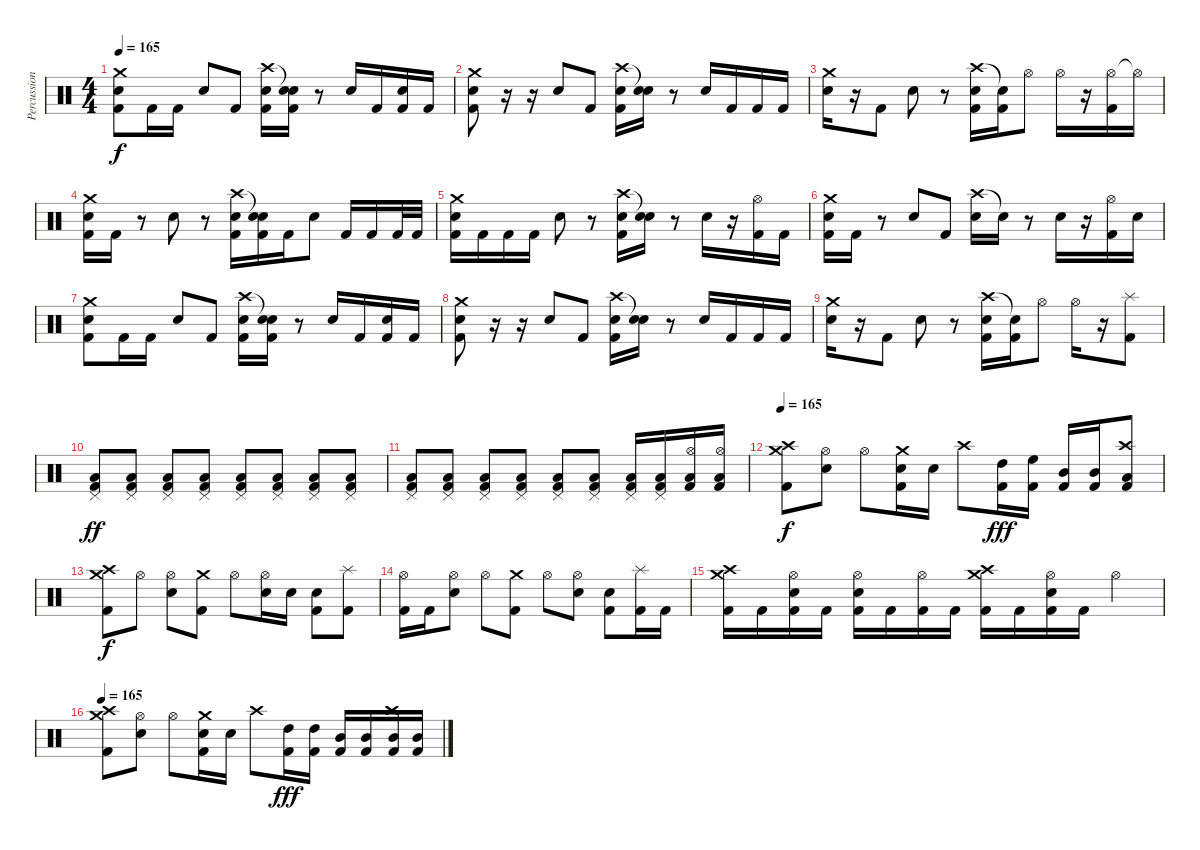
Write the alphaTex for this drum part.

\track ("Percussion" "Percussion") {instrument percussion}
\staff {score}
\articulation defaults
\ts (4 4)
\tempo 165
\clef neutral
\ks c
("Crash medium (hit)" "Electric Snare (hit)" "Kick (hit) 2").8{dy f} "Kick (hit) 2".16 "Kick (hit) 2".16 "Electric Snare (hit)".8 "Kick (hit) 2".8 ("Crash high (hit)" "Electric Snare (hit)" "Kick (hit) 2").16 ("Snare (hit)"{t} "Electric Snare (hit)" "Kick (hit) 2").16 r.8 "Electric Snare (hit)".16 "Kick (hit) 2".16 ("Electric Snare (hit)" "Kick (hit) 2").16 "Kick (hit) 2".16 |
("Crash medium (hit)" "Electric Snare (hit)" "Kick (hit) 2").8 r.16 r.16 "Electric Snare (hit)".8 "Kick (hit) 2".8 ("Crash high (hit)" "Electric Snare (hit)" "Kick (hit) 2").16 ("Snare (hit)"{t} "Electric Snare (hit)").16 r.8 "Electric Snare (hit)".16 "Kick (hit) 2".16 "Kick (hit) 2".16 "Kick (hit) 2".16 |
("Crash medium (hit)" "Electric Snare (hit)").16 r.16 "Kick (hit) 2".8 "Electric Snare (hit)".8 r.8 ("Crash high (hit)" "Electric Snare (hit)" "Kick (hit) 2").16 ("Snare (hit)"{t} "Kick (hit) 2").16 "Hi-Hat (open)".8 "Hi-Hat (open)".16 r.16 ("Hi-Hat (open)" "Kick (hit) 2").16 "Hi-Hat (open)"{t}.16 |
("Crash medium (hit)" "Electric Snare (hit)" "Kick (hit) 2").16 "Kick (hit) 2".16 r.8 "Electric Snare (hit)".8 r.8 ("Crash high (hit)" "Electric Snare (hit)" "Kick (hit) 2").16 ("Snare (hit)"{t} "Electric Snare (hit)" "Kick (hit) 2").16 "Kick (hit) 2".16 "Electric Snare (hit)".8 "Kick (hit) 2".16 "Kick (hit) 2".16 "Kick (hit) 2".32 "Kick (hit) 2".32 |
("Crash medium (hit)" "Electric Snare (hit)" "Kick (hit) 2").16 "Kick (hit) 2".16 "Kick (hit) 2".16 "Kick (hit) 2".16 "Electric Snare (hit)".8 r.8 ("Crash high (hit)" "Electric Snare (hit)" "Kick (hit) 2").16 ("Snare (hit)"{t} "Electric Snare (hit)").16 r.8 "Electric Snare (hit)".16 r.16 ("Hi-Hat (open)" "Kick (hit) 2").16 "Kick (hit) 2".16 |
("Crash medium (hit)" "Electric Snare (hit)" "Kick (hit) 2").16 "Kick (hit) 2".16 r.8 "Electric Snare (hit)".8 "Kick (hit) 2".8 ("Crash high (hit)" "Electric Snare (hit)").16 "Snare (hit)"{t}.16 r.8 "Electric Snare (hit)".16 r.16 ("Hi-Hat (open)" "Kick (hit) 2").16 "Electric Snare (hit)".16 |
("Crash medium (hit)" "Electric Snare (hit)" "Kick (hit) 2").8 "Kick (hit) 2".16 "Kick (hit) 2".16 "Electric Snare (hit)".8 "Kick (hit) 2".8 ("Crash high (hit)" "Electric Snare (hit)" "Kick (hit) 2").16 ("Snare (hit)"{t} "Electric Snare (hit)" "Kick (hit) 2").16 r.8 "Electric Snare (hit)".16 "Kick (hit) 2".16 ("Electric Snare (hit)" "Kick (hit) 2").16 "Kick (hit) 2".16 |
("Crash medium (hit)" "Electric Snare (hit)" "Kick (hit) 2").8 r.16 r.16 "Electric Snare (hit)".8 "Kick (hit) 2".8 ("Crash high (hit)" "Electric Snare (hit)" "Kick (hit) 2").16 ("Snare (hit)"{t} "Electric Snare (hit)").16 r.8 "Electric Snare (hit)".16 "Kick (hit) 2".16 "Kick (hit) 2".16 "Kick (hit) 2".16 |
("Crash medium (hit)" "Electric Snare (hit)").16 r.16 "Kick (hit) 2".8 "Electric Snare (hit)".8 r.8 ("Crash high (hit)" "Electric Snare (hit)" "Kick (hit) 2").16 ("Snare (hit)"{t} "Kick (hit) 2").16 "Hi-Hat (open)".8 "Hi-Hat (open)".16 r.16 ("Splash (hit)" "Kick (hit) 2").8 |
("Pedal Hi-Hat (hit)" "Low Floor Tom (hit)" "Kick (hit) 2").8{dy ff} ("Pedal Hi-Hat (hit)" "Low Floor Tom (hit)" "Kick (hit) 2").8 ("Pedal Hi-Hat (hit)" "Low Floor Tom (hit)" "Kick (hit) 2").8 ("Pedal Hi-Hat (hit)" "Low Floor Tom (hit)" "Kick (hit) 2").8 ("Pedal Hi-Hat (hit)" "Low Floor Tom (hit)" "Kick (hit) 2").8 ("Pedal Hi-Hat (hit)" "Low Floor Tom (hit)" "Kick (hit) 2").8 ("Pedal Hi-Hat (hit)" "Low Floor Tom (hit)" "Kick (hit) 2").8 ("Pedal Hi-Hat (hit)" "Low Floor Tom (hit)" "Kick (hit) 2").8 |
("Pedal Hi-Hat (hit)" "Low Floor Tom (hit)" "Kick (hit) 2").8 ("Pedal Hi-Hat (hit)" "Low Floor Tom (hit)" "Kick (hit) 2").8 ("Pedal Hi-Hat (hit)" "Low Floor Tom (hit)" "Kick (hit) 2").8 ("Pedal Hi-Hat (hit)" "Low Floor Tom (hit)" "Kick (hit) 2").8 ("Pedal Hi-Hat (hit)" "Low Floor Tom (hit)" "Kick (hit) 2").8 ("Pedal Hi-Hat (hit)" "Low Floor Tom (hit)" "Kick (hit) 2").8 ("Pedal Hi-Hat (hit)" "Low Floor Tom (hit)" "Kick (hit) 2").16 ("Pedal Hi-Hat (hit)" "Low Floor Tom (hit)" "Kick (hit) 2").16 ("Hi-Hat (open)" "Low Floor Tom (hit)" "Kick (hit) 2").16 ("Hi-Hat (open)" "Low Floor Tom (hit)" "Kick (hit) 2").16 |
\tempo 165
("Crash medium (hit)" "Crash high (hit)" "Kick (hit) 2").8{dy f} ("Hi-Hat (open)" "Electric Snare (hit)").8 "Hi-Hat (open)".8 ("Crash medium (hit)" "Electric Snare (hit)" "Kick (hit) 2").16 "Electric Snare (hit)".16 "Crash high (hit)".8 ("High Tom (hit)" "Kick (hit) 2").16{dy fff} ("High Floor Tom (hit)" "Kick (hit) 2").16 ("Mid Tom (hit)" "Kick (hit) 2").16 ("Mid Tom (hit)" "Kick (hit) 2").16 ("Crash high (hit)" "Low Tom (hit)" "Kick (hit) 2").8 |
("Crash medium (hit)" "Crash high (hit)" "Kick (hit) 2").8{dy f} "Hi-Hat (open)".8 ("Hi-Hat (open)" "Electric Snare (hit)").8 ("Crash medium (hit)" "Kick (hit) 2").8 "Hi-Hat (open)".8 ("Hi-Hat (open)" "Electric Snare (hit)").16 "Electric Snare (hit)".16 ("Electric Snare (hit)" "Kick (hit) 2").8 ("Splash (hit)" "Kick (hit) 2").8 |
("Hi-Hat (open)" "Kick (hit) 2").16 "Kick (hit) 2".16 ("Hi-Hat (open)" "Electric Snare (hit)").8 "Hi-Hat (open)".8 ("Crash medium (hit)" "Kick (hit) 2").8 "Hi-Hat (open)".8 ("Hi-Hat (open)" "Electric Snare (hit)").8 ("Electric Snare (hit)" "Kick (hit) 2").8 ("Splash (hit)" "Kick (hit) 2").16 "Kick (hit) 2".16 |
("Crash medium (hit)" "Crash high (hit)" "Kick (hit) 2").16 "Kick (hit) 2".16 ("Hi-Hat (open)" "Electric Snare (hit)" "Kick (hit) 2").16 "Kick (hit) 2".16 ("Hi-Hat (open)" "Electric Snare (hit)" "Kick (hit) 2").16 "Kick (hit) 2".16 ("Hi-Hat (open)" "Kick (hit) 2").16 "Kick (hit) 2".16 ("Crash medium (hit)" "Crash high (hit)" "Kick (hit) 2").16 "Kick (hit) 2".16 ("Hi-Hat (open)" "Electric Snare (hit)" "Kick (hit) 2").16 "Kick (hit) 2".16 "Hi-Hat (open)".4 |
\tempo 165
("Crash medium (hit)" "Crash high (hit)" "Kick (hit) 2").8 ("Hi-Hat (open)" "Electric Snare (hit)").8 "Hi-Hat (open)".8 ("Crash medium (hit)" "Electric Snare (hit)" "Kick (hit) 2").16 "Electric Snare (hit)".16 "Crash high (hit)".8 ("High Tom (hit)" "Kick (hit) 2").16{dy fff} ("High Tom (hit)" "Kick (hit) 2").16 ("Mid Tom (hit)" "Kick (hit) 2").16 ("Mid Tom (hit)" "Kick (hit) 2").16 ("Crash high (hit)" "Mid Tom (hit)" "Kick (hit) 2").16 ("Mid Tom (hit)" "Kick (hit) 2").16
